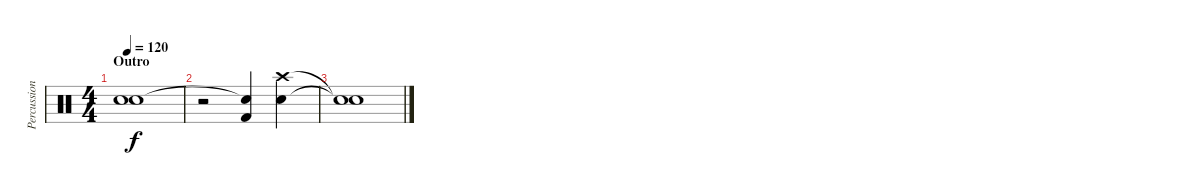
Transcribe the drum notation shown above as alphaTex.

\track ("Percussions" "Percussion") {instrument percussion}
\staff {score}
\articulation defaults
\ts (4 4)
\section ("" "Outro")
\tempo 120
\clef neutral
\ks c
("Snare (hit)"{t} "Snare (hit)"{t}).1{dy f} |
r.2 ("Kick (hit) 2" "Snare (hit)"{t}).4 ("Crash high (hit)" "Electric Snare (hit)").4 |
("Snare (hit)"{t} "Snare (hit)"{t}).1
